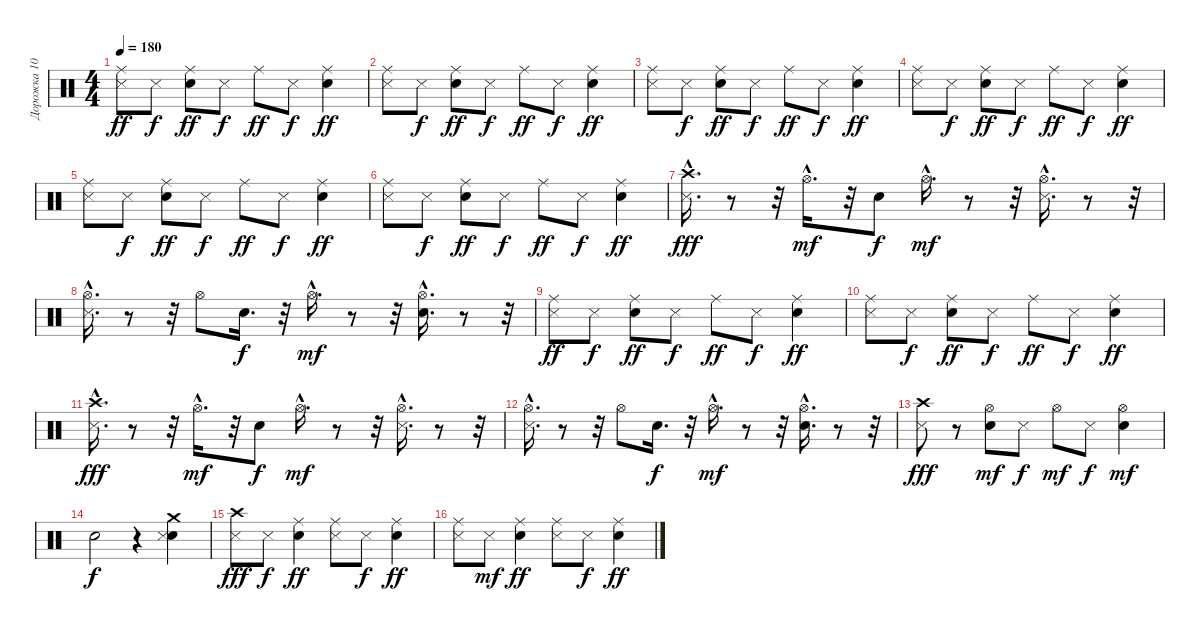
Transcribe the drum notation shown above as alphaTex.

\track ("Дорожка 10" "Дорожка 10") {instrument percussion}
\staff {score}
\articulation defaults
\ts (4 4)
\tempo 180
\clef neutral
\ks c
("Metronome (hit)" "Ride (middle)").8{dy ff} "Metronome (hit)".8{dy f} ("Snare (hit) 2" "Ride (middle)").8{dy ff} "Metronome (hit)".8{dy f} "Ride (middle)".8{dy ff} "Metronome (hit)".8{dy f} ("Snare (hit) 2" "Ride (middle)").4{dy ff} |
("Metronome (hit)" "Ride (middle)").8 "Metronome (hit)".8{dy f} ("Snare (hit) 2" "Ride (middle)").8{dy ff} "Metronome (hit)".8{dy f} "Ride (middle)".8{dy ff} "Metronome (hit)".8{dy f} ("Snare (hit) 2" "Ride (middle)").4{dy ff} |
("Metronome (hit)" "Ride (middle)").8 "Metronome (hit)".8{dy f} ("Snare (hit) 2" "Ride (middle)").8{dy ff} "Metronome (hit)".8{dy f} "Ride (middle)".8{dy ff} "Metronome (hit)".8{dy f} ("Snare (hit) 2" "Ride (middle)").4{dy ff} |
("Metronome (hit)" "Ride (middle)").8 "Metronome (hit)".8{dy f} ("Snare (hit) 2" "Ride (middle)").8{dy ff} "Metronome (hit)".8{dy f} "Ride (middle)".8{dy ff} "Metronome (hit)".8{dy f} ("Snare (hit) 2" "Ride (middle)").4{dy ff} |
("Metronome (hit)" "Ride (middle)").8 "Metronome (hit)".8{dy f} ("Snare (hit) 2" "Ride (middle)").8{dy ff} "Metronome (hit)".8{dy f} "Ride (middle)".8{dy ff} "Metronome (hit)".8{dy f} ("Snare (hit) 2" "Ride (middle)").4{dy ff} |
("Metronome (hit)" "Ride (middle)").8 "Metronome (hit)".8{dy f} ("Snare (hit) 2" "Ride (middle)").8{dy ff} "Metronome (hit)".8{dy f} "Ride (middle)".8{dy ff} "Metronome (hit)".8{dy f} ("Snare (hit) 2" "Ride (middle)").4{dy ff} |
("Metronome (hit)"{hac} "Crash high (hit)").16{d dy fff} r.8 r.32 "Hi-Hat (open)"{hac}.16{d dy mf} r.32 "Snare (hit) 2".8{dy f} "Hi-Hat (open)"{hac}.16{d dy mf} r.8 r.32 ("Hi-Hat (open)"{hac} "Metronome (hit)").16{d} r.8 r.32 |
("Hi-Hat (open)"{hac} "Metronome (hit)"{hac}).16{d} r.8 r.32 "Hi-Hat (open)".8 "Snare (hit) 2".16{d dy f} r.32 "Hi-Hat (open)"{hac}.16{d dy mf} r.8 r.32 ("Snare (hit) 2"{hac} "Hi-Hat (open)"{hac}).16{d} r.8 r.32 |
("Metronome (hit)" "Ride (middle)").8{dy ff} "Metronome (hit)".8{dy f} ("Snare (hit) 2" "Ride (middle)").8{dy ff} "Metronome (hit)".8{dy f} "Ride (middle)".8{dy ff} "Metronome (hit)".8{dy f} ("Snare (hit) 2" "Ride (middle)").4{dy ff} |
("Metronome (hit)" "Ride (middle)").8 "Metronome (hit)".8{dy f} ("Snare (hit) 2" "Ride (middle)").8{dy ff} "Metronome (hit)".8{dy f} "Ride (middle)".8{dy ff} "Metronome (hit)".8{dy f} ("Snare (hit) 2" "Ride (middle)").4{dy ff} |
("Metronome (hit)"{hac} "Crash high (hit)").16{d dy fff} r.8 r.32 "Hi-Hat (open)"{hac}.16{d dy mf} r.32 "Snare (hit) 2".8{dy f} "Hi-Hat (open)"{hac}.16{d dy mf} r.8 r.32 ("Hi-Hat (open)"{hac} "Metronome (hit)").16{d} r.8 r.32 |
("Hi-Hat (open)"{hac} "Metronome (hit)"{hac}).16{d} r.8 r.32 "Hi-Hat (open)".8 "Snare (hit) 2".16{d dy f} r.32 "Hi-Hat (open)"{hac}.16{d dy mf} r.8 r.32 ("Snare (hit) 2"{hac} "Hi-Hat (open)"{hac}).16{d} r.8 r.32 |
("Crash high (hit)" "Metronome (hit)").8{dy fff} r.8 ("Hi-Hat (open)" "Snare (hit) 2").8{dy mf} "Metronome (hit)".8{dy f} "Hi-Hat (open)".8{dy mf} "Metronome (hit)".8{dy f} ("Hi-Hat (open)" "Snare (hit) 2").4{dy mf} |
"Electric Snare (hit)".2{dy f} r.4 ("Snare (hit) 2" "Metronome (hit)" "Crash medium (hit)").4 |
("Metronome (hit)" "Crash high (hit)").8{dy fff} "Metronome (hit)".8{dy f} ("Snare (hit) 2" "Ride (middle)").4{dy ff} ("Metronome (hit)" "Ride (middle)").8 "Metronome (hit)".8{dy f} ("Snare (hit) 2" "Ride (middle)").4{dy ff} |
("Metronome (hit)" "Ride (middle)").8 "Metronome (hit)".8{dy mf} ("Snare (hit) 2" "Ride (middle)").4{dy ff} ("Metronome (hit)" "Ride (middle)").8 "Metronome (hit)".8{dy f} ("Snare (hit) 2" "Ride (middle)").4{dy ff}
